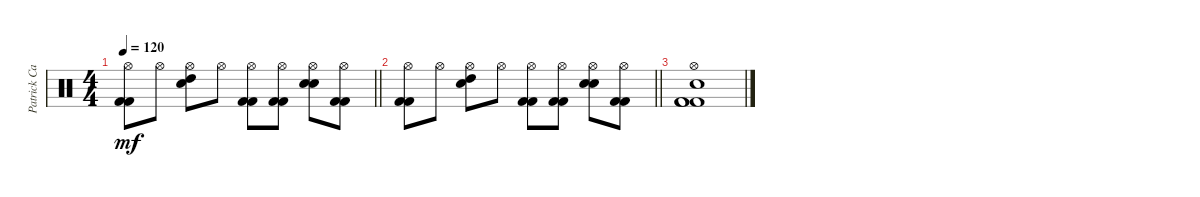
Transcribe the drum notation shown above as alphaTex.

\track ("Patrick Carney" "Patrick Ca") {instrument percussion}
\staff {score}
\articulation defaults
\ts (4 4)
\tempo 120
\clef neutral
\barLineRight lightlight
\ks c
("Hi-Hat (open)" "Kick (hit) 2" "Kick (hit) 2").8{dy mf} "Hi-Hat (open)".8 ("Hi-Hat (open)" "Electric Snare (hit)" "High Tom (hit)").8 "Hi-Hat (open)".8 ("Hi-Hat (open)" "Kick (hit) 2" "Kick (hit) 2").8 ("Hi-Hat (open)" "Kick (hit) 2" "Kick (hit) 2").8 ("Hi-Hat (open)" "Electric Snare (hit)" "Snare (hit) 2").8 ("Hi-Hat (open)" "Kick (hit) 2" "Kick (hit) 2").8 |
\barLineRight lightlight
("Hi-Hat (open)" "Kick (hit) 2" "Kick (hit) 2").8 "Hi-Hat (open)".8 ("Hi-Hat (open)" "Electric Snare (hit)" "High Tom (hit)").8 "Hi-Hat (open)".8 ("Hi-Hat (open)" "Kick (hit) 2" "Kick (hit) 2").8 ("Hi-Hat (open)" "Kick (hit) 2" "Kick (hit) 2").8 ("Hi-Hat (open)" "Electric Snare (hit)" "Snare (hit) 2").8 ("Hi-Hat (open)" "Kick (hit) 2" "Kick (hit) 2").8 |
("Hi-Hat (open)" "Electric Snare (hit)" "Kick (hit) 2" "Kick (hit) 2" "Kick (hit) 2").1
